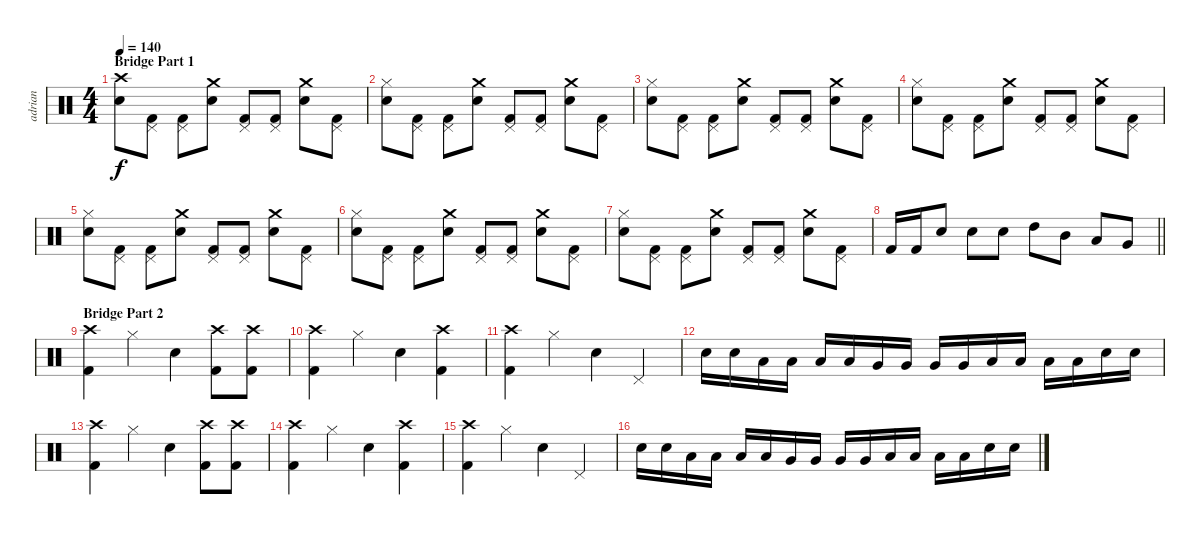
\track ("adrian" "adrian") {instrument percussion}
\staff {score}
\articulation defaults
\ts (4 4)
\section ("" "Bridge Part 1")
\tempo 140
\clef neutral
\ks c
("Electric Snare (hit)" "Crash high (hit)").8{dy f} ("Kick (hit) 2" "Pedal Hi-Hat (hit)").8 ("Kick (hit) 2" "Pedal Hi-Hat (hit)").8 ("Electric Snare (hit)" "Crash medium (hit)").8 ("Kick (hit) 2" "Pedal Hi-Hat (hit)").8 ("Kick (hit) 2" "Pedal Hi-Hat (hit)").8 ("Electric Snare (hit)" "Crash medium (hit)").8 ("Kick (hit) 2" "Pedal Hi-Hat (hit)").8 |
("Electric Snare (hit)" "Hi-Hat (closed)").8 ("Kick (hit) 2" "Pedal Hi-Hat (hit)").8 ("Kick (hit) 2" "Pedal Hi-Hat (hit)").8 ("Electric Snare (hit)" "Crash medium (hit)").8 ("Kick (hit) 2" "Pedal Hi-Hat (hit)").8 ("Kick (hit) 2" "Pedal Hi-Hat (hit)").8 ("Electric Snare (hit)" "Crash medium (hit)").8 ("Kick (hit) 2" "Pedal Hi-Hat (hit)").8 |
("Electric Snare (hit)" "Hi-Hat (closed)").8 ("Kick (hit) 2" "Pedal Hi-Hat (hit)").8 ("Kick (hit) 2" "Pedal Hi-Hat (hit)").8 ("Electric Snare (hit)" "Crash medium (hit)").8 ("Kick (hit) 2" "Pedal Hi-Hat (hit)").8 ("Kick (hit) 2" "Pedal Hi-Hat (hit)").8 ("Electric Snare (hit)" "Crash medium (hit)").8 ("Kick (hit) 2" "Pedal Hi-Hat (hit)").8 |
("Electric Snare (hit)" "Hi-Hat (closed)").8 ("Kick (hit) 2" "Pedal Hi-Hat (hit)").8 ("Kick (hit) 2" "Pedal Hi-Hat (hit)").8 ("Electric Snare (hit)" "Crash medium (hit)").8 ("Kick (hit) 2" "Pedal Hi-Hat (hit)").8 ("Kick (hit) 2" "Pedal Hi-Hat (hit)").8 ("Electric Snare (hit)" "Crash medium (hit)").8 ("Kick (hit) 2" "Pedal Hi-Hat (hit)").8 |
("Electric Snare (hit)" "Hi-Hat (closed)").8 ("Kick (hit) 2" "Pedal Hi-Hat (hit)").8 ("Kick (hit) 2" "Pedal Hi-Hat (hit)").8 ("Electric Snare (hit)" "Crash medium (hit)").8 ("Kick (hit) 2" "Pedal Hi-Hat (hit)").8 ("Kick (hit) 2" "Pedal Hi-Hat (hit)").8 ("Electric Snare (hit)" "Crash medium (hit)").8 ("Kick (hit) 2" "Pedal Hi-Hat (hit)").8 |
("Electric Snare (hit)" "Hi-Hat (closed)").8 ("Kick (hit) 2" "Pedal Hi-Hat (hit)").8 ("Kick (hit) 2" "Pedal Hi-Hat (hit)").8 ("Electric Snare (hit)" "Crash medium (hit)").8 ("Kick (hit) 2" "Pedal Hi-Hat (hit)").8 ("Kick (hit) 2" "Pedal Hi-Hat (hit)").8 ("Electric Snare (hit)" "Crash medium (hit)").8 ("Kick (hit) 2" "Pedal Hi-Hat (hit)").8 |
("Electric Snare (hit)" "Hi-Hat (closed)").8 ("Kick (hit) 2" "Pedal Hi-Hat (hit)").8 ("Kick (hit) 2" "Pedal Hi-Hat (hit)").8 ("Electric Snare (hit)" "Crash medium (hit)").8 ("Kick (hit) 2" "Pedal Hi-Hat (hit)").8 ("Kick (hit) 2" "Pedal Hi-Hat (hit)").8 ("Electric Snare (hit)" "Crash medium (hit)").8 ("Kick (hit) 2" "Pedal Hi-Hat (hit)").8 |
\barLineRight lightlight "Kick (hit) 2".16 "Kick (hit) 2".16 "Electric Snare (hit)".8 "Electric Snare (hit)".8 "Electric Snare (hit)".8 "High Tom (hit)".8 "Mid Tom (hit)".8 "Low Tom (hit)".8 "Very Low Tom (hit)".8
|
\section ("" "Bridge Part 2")
("Kick (hit) 2" "Crash high (hit)").4 "Hi-Hat (closed)".4 "Electric Snare (hit)".4 ("Kick (hit) 2" "Crash high (hit)").8 ("Kick (hit) 2" "Crash high (hit)").8 |
("Kick (hit) 2" "Crash high (hit)").4 "Hi-Hat (closed)".4 "Electric Snare (hit)".4 ("Kick (hit) 2" "Crash high (hit)").4 |
("Kick (hit) 2" "Crash high (hit)").4 "Hi-Hat (closed)".4 "Electric Snare (hit)".4 "Pedal Hi-Hat (hit)".4 |
"Snare (hit) 2".16 "Snare (hit) 2".16 "Low Tom (hit)".16 "Low Tom (hit)".16 "Low Tom (hit)".16 "Low Tom (hit)".16 "Very Low Tom (hit)".16 "Very Low Tom (hit)".16 "Very Low Tom (hit)".16 "Very Low Tom (hit)".16 "Low Floor Tom (hit)".16 "Low Floor Tom (hit)".16 "Low Floor Tom (hit)".16 "Low Floor Tom (hit)".16 "Electric Snare (hit)".16 "Electric Snare (hit)".16 |
("Kick (hit) 2" "Crash high (hit)").4 "Hi-Hat (closed)".4 "Electric Snare (hit)".4 ("Kick (hit) 2" "Crash high (hit)").8 ("Kick (hit) 2" "Crash high (hit)").8 |
("Kick (hit) 2" "Crash high (hit)").4 "Hi-Hat (closed)".4 "Electric Snare (hit)".4 ("Kick (hit) 2" "Crash high (hit)").4 |
("Kick (hit) 2" "Crash high (hit)").4 "Hi-Hat (closed)".4 "Electric Snare (hit)".4 "Pedal Hi-Hat (hit)".4 |
"Snare (hit) 2".16 "Snare (hit) 2".16 "Low Tom (hit)".16 "Low Tom (hit)".16 "Low Tom (hit)".16 "Low Tom (hit)".16 "Very Low Tom (hit)".16 "Very Low Tom (hit)".16 "Very Low Tom (hit)".16 "Very Low Tom (hit)".16 "Low Floor Tom (hit)".16 "Low Floor Tom (hit)".16 "Low Floor Tom (hit)".16 "Low Floor Tom (hit)".16 "Electric Snare (hit)".16 "Electric Snare (hit)".16
